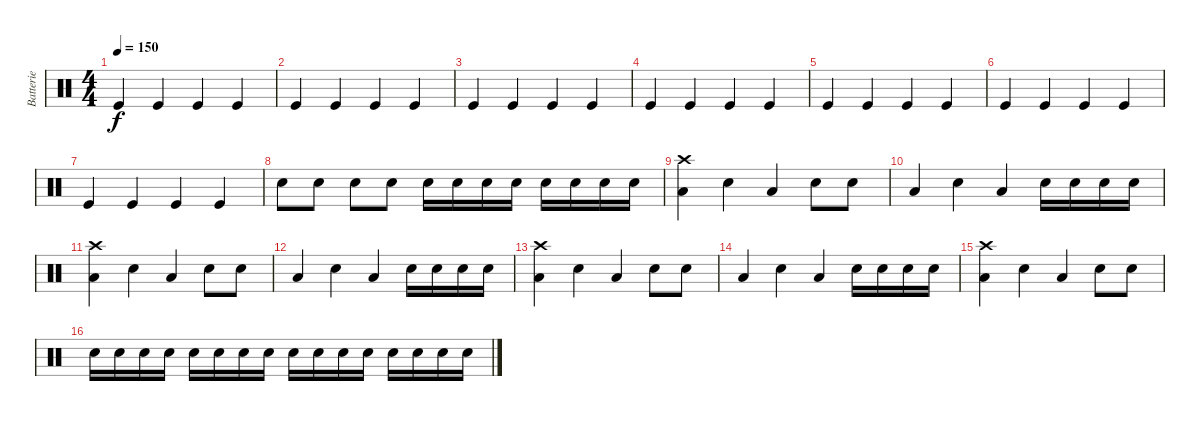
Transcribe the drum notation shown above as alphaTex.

\track ("Batterie" "Batterie") {instrument percussion}
\staff {score}
\articulation defaults
\ts (4 4)
\tempo 150
\clef neutral
\ks c "Kick (hit)".4{dy f} "Kick (hit)".4 "Kick (hit)".4 "Kick (hit)".4
|
"Kick (hit)".4 "Kick (hit)".4 "Kick (hit)".4 "Kick (hit)".4 |
"Kick (hit)".4 "Kick (hit)".4 "Kick (hit)".4 "Kick (hit)".4 |
"Kick (hit)".4 "Kick (hit)".4 "Kick (hit)".4 "Kick (hit)".4 |
"Kick (hit)".4 "Kick (hit)".4 "Kick (hit)".4 "Kick (hit)".4 |
"Kick (hit)".4 "Kick (hit)".4 "Kick (hit)".4 "Kick (hit)".4 |
"Kick (hit)".4 "Kick (hit)".4 "Kick (hit)".4 "Kick (hit)".4 |
"Snare (hit) 2".8 "Snare (hit) 2".8 "Snare (hit) 2".8 "Snare (hit) 2".8 "Snare (hit) 2".16 "Snare (hit) 2".16 "Snare (hit) 2".16 "Snare (hit) 2".16 "Snare (hit) 2".16 "Snare (hit) 2".16 "Snare (hit) 2".16 "Snare (hit) 2".16 |
("Crash high (hit)" "Low Tom (hit)").4 "Snare (hit) 2".4 "Low Tom (hit)".4 "Snare (hit) 2".8 "Snare (hit) 2".8 |
"Low Tom (hit)".4 "Snare (hit) 2".4 "Low Tom (hit)".4 "Snare (hit) 2".16 "Snare (hit) 2".16 "Snare (hit) 2".16 "Snare (hit) 2".16 |
("Crash high (hit)" "Low Tom (hit)").4 "Snare (hit) 2".4 "Low Tom (hit)".4 "Snare (hit) 2".8 "Snare (hit) 2".8 |
"Low Tom (hit)".4 "Snare (hit) 2".4 "Low Tom (hit)".4 "Snare (hit) 2".16 "Snare (hit) 2".16 "Snare (hit) 2".16 "Snare (hit) 2".16 |
("Crash high (hit)" "Low Tom (hit)").4 "Snare (hit) 2".4 "Low Tom (hit)".4 "Snare (hit) 2".8 "Snare (hit) 2".8 |
"Low Tom (hit)".4 "Snare (hit) 2".4 "Low Tom (hit)".4 "Snare (hit) 2".16 "Snare (hit) 2".16 "Snare (hit) 2".16 "Snare (hit) 2".16 |
("Crash high (hit)" "Low Tom (hit)").4 "Snare (hit) 2".4 "Low Tom (hit)".4 "Snare (hit) 2".8 "Snare (hit) 2".8 |
"Snare (hit) 2".16 "Snare (hit) 2".16 "Snare (hit) 2".16 "Snare (hit) 2".16 "Snare (hit) 2".16 "Snare (hit) 2".16 "Snare (hit) 2".16 "Snare (hit) 2".16 "Snare (hit) 2".16 "Snare (hit) 2".16 "Snare (hit) 2".16 "Snare (hit) 2".16 "Snare (hit) 2".16 "Snare (hit) 2".16 "Snare (hit) 2".16 "Snare (hit) 2".16
